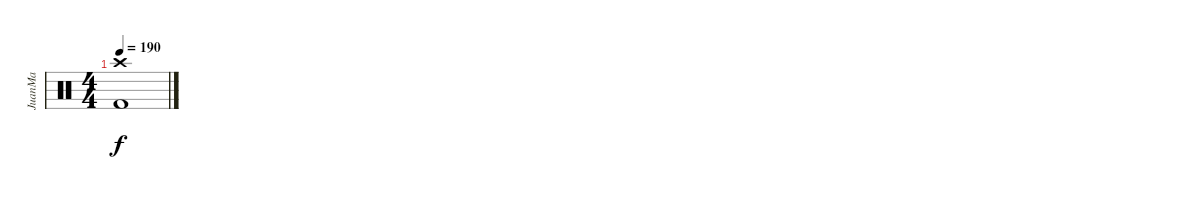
\track ("JuanMa" "JuanMa") {instrument percussion}
\staff {score}
\articulation defaults
\ts (4 4)
\tempo 190
\clef neutral
\ks c
("Crash high (hit)" "Kick (hit) 2").1{dy f}
